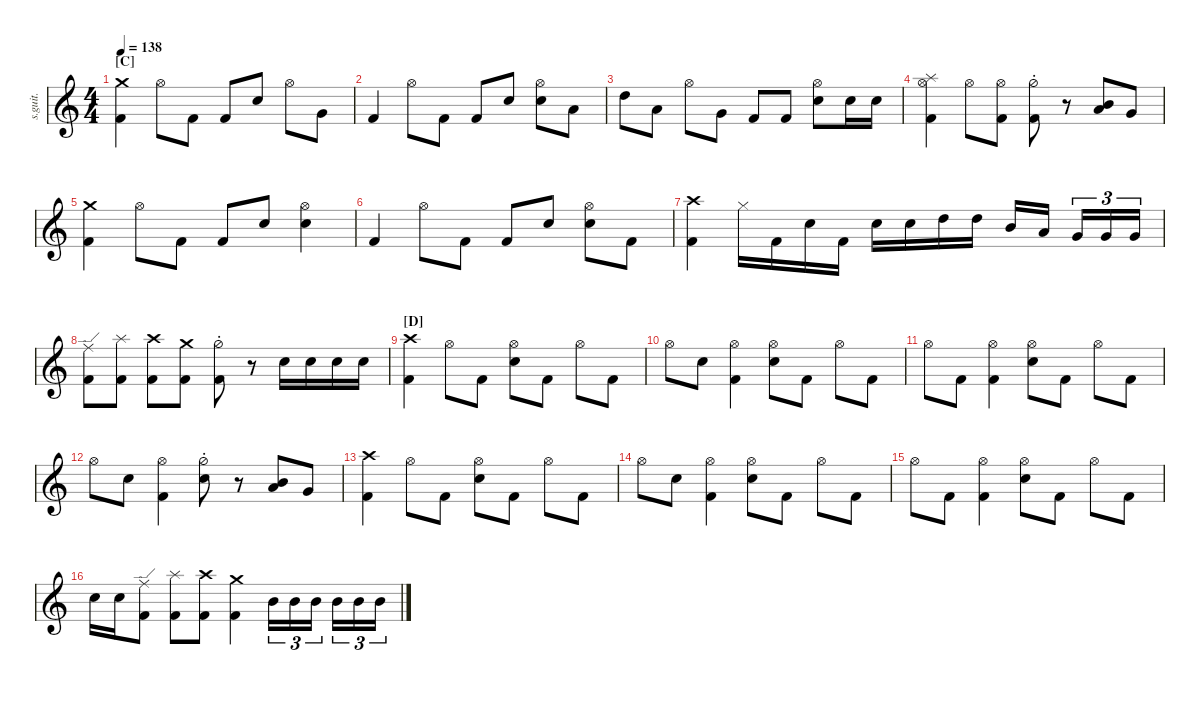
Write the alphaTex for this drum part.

\defaultSystemsLayout 4
\hideDynamics
\bracketExtendMode nobrackets
\track ("Nathan Camarena" "s.guit.") {instrument percussion}
\staff {score}
\articulation defaults
\ts (4 4)
\beaming (8 2 2 2 2)
\section ("C" "")
\tempo 138
\clef g2
\ks c
("Crash medium (hit)" "Kick (hit) 2").4{lyrics (0 "") lyrics (1 "") lyrics (2 "") lyrics (3 "") lyrics (4 "") dy f} "Hi-Hat (open)".8{lyrics (0 "") lyrics (1 "") lyrics (2 "") lyrics (3 "") lyrics (4 "")} "Kick (hit) 2".8{lyrics (0 "") lyrics (1 "") lyrics (2 "") lyrics (3 "") lyrics (4 "")} "Kick (hit) 2".8{lyrics (0 "") lyrics (1 "") lyrics (2 "") lyrics (3 "") lyrics (4 "")} "Snare (hit) 2".8{lyrics (0 "") lyrics (1 "") lyrics (2 "") lyrics (3 "") lyrics (4 "")} "Hi-Hat (open)".8{lyrics (0 "") lyrics (1 "") lyrics (2 "") lyrics (3 "") lyrics (4 "")} "Very Low Tom (hit)".8{lyrics (0 "") lyrics (1 "") lyrics (2 "") lyrics (3 "") lyrics (4 "") dy fff} |
"Kick (hit) 2".4{lyrics (0 "") lyrics (1 "") lyrics (2 "") lyrics (3 "") lyrics (4 "") dy f} "Hi-Hat (open)".8{lyrics (0 "") lyrics (1 "") lyrics (2 "") lyrics (3 "") lyrics (4 "")} "Kick (hit) 2".8{lyrics (0 "") lyrics (1 "") lyrics (2 "") lyrics (3 "") lyrics (4 "")} "Kick (hit) 2".8{lyrics (0 "") lyrics (1 "") lyrics (2 "") lyrics (3 "") lyrics (4 "")} "Snare (hit) 2".8{lyrics (0 "") lyrics (1 "") lyrics (2 "") lyrics (3 "") lyrics (4 "")} ("Snare (hit) 2" "Hi-Hat (open)").8{lyrics (0 "") lyrics (1 "") lyrics (2 "") lyrics (3 "") lyrics (4 "")} "Low Tom (hit)".8{lyrics (0 "") lyrics (1 "") lyrics (2 "") lyrics (3 "") lyrics (4 "") dy fff} |
"High Tom (hit)".8{lyrics (0 "") lyrics (1 "") lyrics (2 "") lyrics (3 "") lyrics (4 "")} "Low Tom (hit)".8{lyrics (0 "") lyrics (1 "") lyrics (2 "") lyrics (3 "") lyrics (4 "")} "Hi-Hat (open)".8{lyrics (0 "") lyrics (1 "") lyrics (2 "") lyrics (3 "") lyrics (4 "") dy f} "Very Low Tom (hit)".8{lyrics (0 "") lyrics (1 "") lyrics (2 "") lyrics (3 "") lyrics (4 "") dy fff} "Kick (hit) 2".8{lyrics (0 "") lyrics (1 "") lyrics (2 "") lyrics (3 "") lyrics (4 "") dy f} "Kick (hit) 2".8{lyrics (0 "") lyrics (1 "") lyrics (2 "") lyrics (3 "") lyrics (4 "")} ("Snare (hit) 2" "Hi-Hat (open)").8{lyrics (0 "") lyrics (1 "") lyrics (2 "") lyrics (3 "") lyrics (4 "")} "Snare (hit) 2".16{lyrics (0 "") lyrics (1 "") lyrics (2 "") lyrics (3 "") lyrics (4 "")} "Snare (hit) 2".16{lyrics (0 "") lyrics (1 "") lyrics (2 "") lyrics (3 "") lyrics (4 "")} |
("Splash (hit)" "Kick (hit) 2" "Hi-Hat (open)").4{lyrics (0 "") lyrics (1 "") lyrics (2 "") lyrics (3 "") lyrics (4 "")} "Hi-Hat (open)".8{lyrics (0 "") lyrics (1 "") lyrics (2 "") lyrics (3 "") lyrics (4 "")} ("Hi-Hat (open)" "Kick (hit) 2").8{lyrics (0 "") lyrics (1 "") lyrics (2 "") lyrics (3 "") lyrics (4 "")} ("Hi-Hat (half)"{st} "Kick (hit) 2").8{lyrics (0 "") lyrics (1 "") lyrics (2 "") lyrics (3 "") lyrics (4 "")} r.8 ("Mid Tom (hit)" "Low Tom (hit)").8{lyrics (0 "") lyrics (1 "") lyrics (2 "") lyrics (3 "") lyrics (4 "") dy fff} "Very Low Tom (hit)".8{lyrics (0 "") lyrics (1 "") lyrics (2 "") lyrics (3 "") lyrics (4 "")} |
("Crash medium (hit)" "Kick (hit) 2").4{lyrics (0 "") lyrics (1 "") lyrics (2 "") lyrics (3 "") lyrics (4 "") dy f} "Hi-Hat (open)".8{lyrics (0 "") lyrics (1 "") lyrics (2 "") lyrics (3 "") lyrics (4 "")} "Kick (hit) 2".8{lyrics (0 "") lyrics (1 "") lyrics (2 "") lyrics (3 "") lyrics (4 "")} "Kick (hit) 2".8{lyrics (0 "") lyrics (1 "") lyrics (2 "") lyrics (3 "") lyrics (4 "")} "Snare (hit) 2".8{lyrics (0 "") lyrics (1 "") lyrics (2 "") lyrics (3 "") lyrics (4 "")} ("Hi-Hat (open)" "Snare (hit) 2").4{lyrics (0 "") lyrics (1 "") lyrics (2 "") lyrics (3 "") lyrics (4 "")} |
"Kick (hit) 2".4{lyrics (0 "") lyrics (1 "") lyrics (2 "") lyrics (3 "") lyrics (4 "")} "Hi-Hat (open)".8{lyrics (0 "") lyrics (1 "") lyrics (2 "") lyrics (3 "") lyrics (4 "")} "Kick (hit) 2".8{lyrics (0 "") lyrics (1 "") lyrics (2 "") lyrics (3 "") lyrics (4 "")} "Kick (hit) 2".8{lyrics (0 "") lyrics (1 "") lyrics (2 "") lyrics (3 "") lyrics (4 "")} "Snare (hit) 2".8{lyrics (0 "") lyrics (1 "") lyrics (2 "") lyrics (3 "") lyrics (4 "")} ("Hi-Hat (open)" "Snare (hit) 2").8{lyrics (0 "") lyrics (1 "") lyrics (2 "") lyrics (3 "") lyrics (4 "")} "Kick (hit) 2".8{lyrics (0 "") lyrics (1 "") lyrics (2 "") lyrics (3 "") lyrics (4 "")} |
("Kick (hit) 2" "Crash high (hit)").4{lyrics (0 "") lyrics (1 "") lyrics (2 "") lyrics (3 "") lyrics (4 "")} "Hi-Hat (closed)".16{lyrics (0 "") lyrics (1 "") lyrics (2 "") lyrics (3 "") lyrics (4 "")} "Kick (hit) 2".16{lyrics (0 "") lyrics (1 "") lyrics (2 "") lyrics (3 "") lyrics (4 "")} "Snare (hit) 2".16{lyrics (0 "") lyrics (1 "") lyrics (2 "") lyrics (3 "") lyrics (4 "")} "Kick (hit) 2".16{lyrics (0 "") lyrics (1 "") lyrics (2 "") lyrics (3 "") lyrics (4 "")} "Snare (hit) 2".16{lyrics (0 "") lyrics (1 "") lyrics (2 "") lyrics (3 "") lyrics (4 "")} "Snare (hit) 2".16{lyrics (0 "") lyrics (1 "") lyrics (2 "") lyrics (3 "") lyrics (4 "")} "High Tom (hit)".16{lyrics (0 "") lyrics (1 "") lyrics (2 "") lyrics (3 "") lyrics (4 "") dy fff} "High Tom (hit)".16{lyrics (0 "") lyrics (1 "") lyrics (2 "") lyrics (3 "") lyrics (4 "")} "Mid Tom (hit)".16{lyrics (0 "") lyrics (1 "") lyrics (2 "") lyrics (3 "") lyrics (4 "")} "Low Tom (hit)".16{lyrics (0 "") lyrics (1 "") lyrics (2 "") lyrics (3 "") lyrics (4 "")} "Very Low Tom (hit)".16{tu (3 2) lyrics (0 "") lyrics (1 "") lyrics (2 "") lyrics (3 "") lyrics (4 "")} "Very Low Tom (hit)".16{tu (3 2) lyrics (0 "") lyrics (1 "") lyrics (2 "") lyrics (3 "") lyrics (4 "")} "Very Low Tom (hit)".16{tu (3 2) lyrics (0 "") lyrics (1 "") lyrics (2 "") lyrics (3 "") lyrics (4 "")} |
("Kick (hit) 2" "Ride (edge)").8{lyrics (0 "") lyrics (1 "") lyrics (2 "") lyrics (3 "") lyrics (4 "") dy f} ("Kick (hit) 2" "Splash (hit)").8{lyrics (0 "") lyrics (1 "") lyrics (2 "") lyrics (3 "") lyrics (4 "")} ("Kick (hit) 2" "Crash high (hit)").8{lyrics (0 "") lyrics (1 "") lyrics (2 "") lyrics (3 "") lyrics (4 "")} ("Kick (hit) 2" "Crash medium (hit)").8{lyrics (0 "") lyrics (1 "") lyrics (2 "") lyrics (3 "") lyrics (4 "")} ("Kick (hit) 2" "Hi-Hat (half)"{st}).8{lyrics (0 "") lyrics (1 "") lyrics (2 "") lyrics (3 "") lyrics (4 "")} r.8 "Snare (hit) 2".16{lyrics (0 "") lyrics (1 "") lyrics (2 "") lyrics (3 "") lyrics (4 "")} "Snare (hit) 2".16{lyrics (0 "") lyrics (1 "") lyrics (2 "") lyrics (3 "") lyrics (4 "")} "Snare (hit) 2".16{lyrics (0 "") lyrics (1 "") lyrics (2 "") lyrics (3 "") lyrics (4 "")} "Snare (hit) 2".16{lyrics (0 "") lyrics (1 "") lyrics (2 "") lyrics (3 "") lyrics (4 "")} |
\section ("D" "")
("Crash high (hit)" "Kick (hit) 2").4{lyrics (0 "") lyrics (1 "") lyrics (2 "") lyrics (3 "") lyrics (4 "")} "Hi-Hat (open)".8{lyrics (0 "") lyrics (1 "") lyrics (2 "") lyrics (3 "") lyrics (4 "")} "Kick (hit) 2".8{lyrics (0 "") lyrics (1 "") lyrics (2 "") lyrics (3 "") lyrics (4 "")} ("Snare (hit) 2" "Hi-Hat (open)").8{lyrics (0 "") lyrics (1 "") lyrics (2 "") lyrics (3 "") lyrics (4 "")} "Kick (hit) 2".8{lyrics (0 "") lyrics (1 "") lyrics (2 "") lyrics (3 "") lyrics (4 "")} "Hi-Hat (open)".8{lyrics (0 "") lyrics (1 "") lyrics (2 "") lyrics (3 "") lyrics (4 "")} "Kick (hit) 2".8{lyrics (0 "") lyrics (1 "") lyrics (2 "") lyrics (3 "") lyrics (4 "")} |
"Hi-Hat (open)".8{lyrics (0 "") lyrics (1 "") lyrics (2 "") lyrics (3 "") lyrics (4 "")} "Snare (hit) 2".8{lyrics (0 "") lyrics (1 "") lyrics (2 "") lyrics (3 "") lyrics (4 "")} ("Kick (hit) 2" "Hi-Hat (open)").4{lyrics (0 "") lyrics (1 "") lyrics (2 "") lyrics (3 "") lyrics (4 "")} ("Snare (hit) 2" "Hi-Hat (open)").8{lyrics (0 "") lyrics (1 "") lyrics (2 "") lyrics (3 "") lyrics (4 "")} "Kick (hit) 2".8{lyrics (0 "") lyrics (1 "") lyrics (2 "") lyrics (3 "") lyrics (4 "")} "Hi-Hat (open)".8{lyrics (0 "") lyrics (1 "") lyrics (2 "") lyrics (3 "") lyrics (4 "")} "Kick (hit) 2".8{lyrics (0 "") lyrics (1 "") lyrics (2 "") lyrics (3 "") lyrics (4 "")} |
"Hi-Hat (open)".8{lyrics (0 "") lyrics (1 "") lyrics (2 "") lyrics (3 "") lyrics (4 "")} "Kick (hit) 2".8{lyrics (0 "") lyrics (1 "") lyrics (2 "") lyrics (3 "") lyrics (4 "")} ("Kick (hit) 2" "Hi-Hat (open)").4{lyrics (0 "") lyrics (1 "") lyrics (2 "") lyrics (3 "") lyrics (4 "")} ("Snare (hit) 2" "Hi-Hat (open)").8{lyrics (0 "") lyrics (1 "") lyrics (2 "") lyrics (3 "") lyrics (4 "")} "Kick (hit) 2".8{lyrics (0 "") lyrics (1 "") lyrics (2 "") lyrics (3 "") lyrics (4 "")} "Hi-Hat (open)".8{lyrics (0 "") lyrics (1 "") lyrics (2 "") lyrics (3 "") lyrics (4 "")} "Kick (hit) 2".8{lyrics (0 "") lyrics (1 "") lyrics (2 "") lyrics (3 "") lyrics (4 "")} |
"Hi-Hat (open)".8{lyrics (0 "") lyrics (1 "") lyrics (2 "") lyrics (3 "") lyrics (4 "")} "Snare (hit) 2".8{lyrics (0 "") lyrics (1 "") lyrics (2 "") lyrics (3 "") lyrics (4 "")} ("Kick (hit) 2" "Hi-Hat (open)").4{lyrics (0 "") lyrics (1 "") lyrics (2 "") lyrics (3 "") lyrics (4 "")} ("Snare (hit) 2" "Hi-Hat (half)"{st}).8{lyrics (0 "") lyrics (1 "") lyrics (2 "") lyrics (3 "") lyrics (4 "")} r.8 ("Mid Tom (hit)" "Low Tom (hit)").8{lyrics (0 "") lyrics (1 "") lyrics (2 "") lyrics (3 "") lyrics (4 "") dy fff} "Very Low Tom (hit)".8{lyrics (0 "") lyrics (1 "") lyrics (2 "") lyrics (3 "") lyrics (4 "")} |
("Crash high (hit)" "Kick (hit) 2").4{lyrics (0 "") lyrics (1 "") lyrics (2 "") lyrics (3 "") lyrics (4 "") dy f} "Hi-Hat (open)".8{lyrics (0 "") lyrics (1 "") lyrics (2 "") lyrics (3 "") lyrics (4 "")} "Kick (hit) 2".8{lyrics (0 "") lyrics (1 "") lyrics (2 "") lyrics (3 "") lyrics (4 "")} ("Snare (hit) 2" "Hi-Hat (open)").8{lyrics (0 "") lyrics (1 "") lyrics (2 "") lyrics (3 "") lyrics (4 "")} "Kick (hit) 2".8{lyrics (0 "") lyrics (1 "") lyrics (2 "") lyrics (3 "") lyrics (4 "")} "Hi-Hat (open)".8{lyrics (0 "") lyrics (1 "") lyrics (2 "") lyrics (3 "") lyrics (4 "")} "Kick (hit) 2".8{lyrics (0 "") lyrics (1 "") lyrics (2 "") lyrics (3 "") lyrics (4 "")} |
"Hi-Hat (open)".8{lyrics (0 "") lyrics (1 "") lyrics (2 "") lyrics (3 "") lyrics (4 "")} "Snare (hit) 2".8{lyrics (0 "") lyrics (1 "") lyrics (2 "") lyrics (3 "") lyrics (4 "")} ("Kick (hit) 2" "Hi-Hat (open)").4{lyrics (0 "") lyrics (1 "") lyrics (2 "") lyrics (3 "") lyrics (4 "")} ("Snare (hit) 2" "Hi-Hat (open)").8{lyrics (0 "") lyrics (1 "") lyrics (2 "") lyrics (3 "") lyrics (4 "")} "Kick (hit) 2".8{lyrics (0 "") lyrics (1 "") lyrics (2 "") lyrics (3 "") lyrics (4 "")} "Hi-Hat (open)".8{lyrics (0 "") lyrics (1 "") lyrics (2 "") lyrics (3 "") lyrics (4 "")} "Kick (hit) 2".8{lyrics (0 "") lyrics (1 "") lyrics (2 "") lyrics (3 "") lyrics (4 "")} |
"Hi-Hat (open)".8{lyrics (0 "") lyrics (1 "") lyrics (2 "") lyrics (3 "") lyrics (4 "")} "Kick (hit) 2".8{lyrics (0 "") lyrics (1 "") lyrics (2 "") lyrics (3 "") lyrics (4 "")} ("Kick (hit) 2" "Hi-Hat (open)").4{lyrics (0 "") lyrics (1 "") lyrics (2 "") lyrics (3 "") lyrics (4 "")} ("Snare (hit) 2" "Hi-Hat (open)").8{lyrics (0 "") lyrics (1 "") lyrics (2 "") lyrics (3 "") lyrics (4 "")} "Kick (hit) 2".8{lyrics (0 "") lyrics (1 "") lyrics (2 "") lyrics (3 "") lyrics (4 "")} "Hi-Hat (open)".8{lyrics (0 "") lyrics (1 "") lyrics (2 "") lyrics (3 "") lyrics (4 "")} "Kick (hit) 2".8{lyrics (0 "") lyrics (1 "") lyrics (2 "") lyrics (3 "") lyrics (4 "")} |
"Snare (hit) 2".16{lyrics (0 "") lyrics (1 "") lyrics (2 "") lyrics (3 "") lyrics (4 "")} "Snare (hit) 2".16{lyrics (0 "") lyrics (1 "") lyrics (2 "") lyrics (3 "") lyrics (4 "")} ("Kick (hit) 2" "Ride (edge)").8{lyrics (0 "") lyrics (1 "") lyrics (2 "") lyrics (3 "") lyrics (4 "")} ("Kick (hit) 2" "Splash (hit)").8{lyrics (0 "") lyrics (1 "") lyrics (2 "") lyrics (3 "") lyrics (4 "")} ("Kick (hit) 2" "Crash high (hit)").8{lyrics (0 "") lyrics (1 "") lyrics (2 "") lyrics (3 "") lyrics (4 "")} ("Kick (hit) 2" "Crash medium (hit)").4{lyrics (0 "") lyrics (1 "") lyrics (2 "") lyrics (3 "") lyrics (4 "")} "Mid Tom (hit)".16{tu (3 2) lyrics (0 "") lyrics (1 "") lyrics (2 "") lyrics (3 "") lyrics (4 "") dy fff} "Mid Tom (hit)".16{tu (3 2) lyrics (0 "") lyrics (1 "") lyrics (2 "") lyrics (3 "") lyrics (4 "")} "Mid Tom (hit)".16{tu (3 2) lyrics (0 "") lyrics (1 "") lyrics (2 "") lyrics (3 "") lyrics (4 "")} "Mid Tom (hit)".16{tu (3 2) lyrics (0 "") lyrics (1 "") lyrics (2 "") lyrics (3 "") lyrics (4 "")} "Mid Tom (hit)".16{tu (3 2) lyrics (0 "") lyrics (1 "") lyrics (2 "") lyrics (3 "") lyrics (4 "")} "Mid Tom (hit)".16{tu (3 2) lyrics (0 "") lyrics (1 "") lyrics (2 "") lyrics (3 "") lyrics (4 "")}
